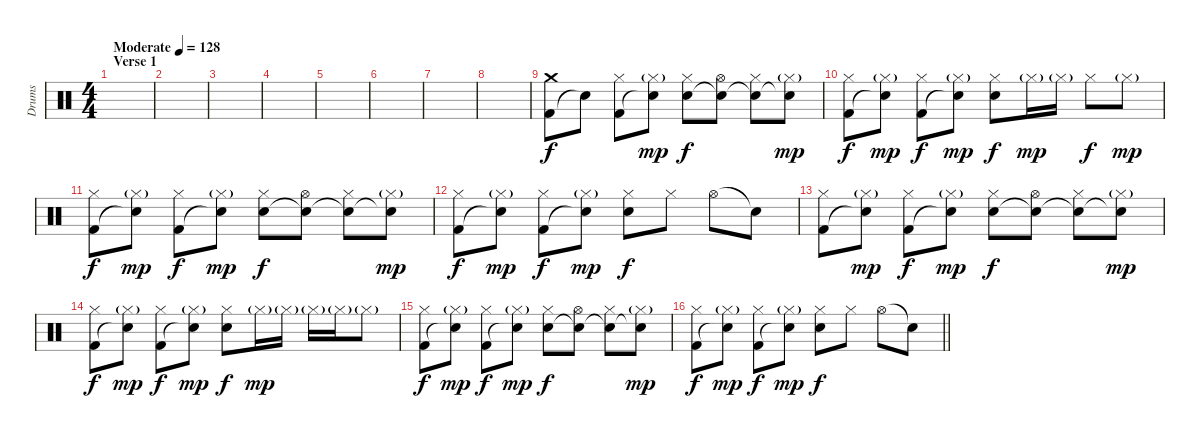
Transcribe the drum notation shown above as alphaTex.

\track ("Drums" "Drums") {instrument percussion}
\staff {score}
\articulation defaults
\ts (4 4)
\section ("" "Verse 1")
\tempo (128 "Moderate")
\clef neutral
\ks c
|
|
|
|
|
|
|
|
("Kick (hit) 2" "Crash medium (hit)").8 "Snare (hit)"{t}.8 ("Kick (hit) 2" "Hi-Hat (closed)").8 ("Snare (hit)"{t} "Hi-Hat (closed)"{g}).8{dy mp} ("Electric Snare (hit)" "Hi-Hat (closed)").8{dy f} ("Snare (hit)"{t} "Hi-Hat (open)").8 ("Snare (hit)"{t} "Hi-Hat (closed)").8 ("Snare (hit)"{t} "Hi-Hat (closed)"{g}).8{dy mp} |
("Kick (hit) 2" "Hi-Hat (closed)").8{dy f} ("Snare (hit)"{t} "Hi-Hat (closed)"{g}).8{dy mp} ("Kick (hit) 2" "Hi-Hat (closed)").8{dy f} ("Snare (hit)"{t} "Hi-Hat (closed)"{g}).8{dy mp} ("Electric Snare (hit)" "Hi-Hat (closed)").8{dy f} "Hi-Hat (closed)"{g}.16{dy mp} "Hi-Hat (closed)"{g}.16 "Hi-Hat (closed)".8{dy f} "Hi-Hat (closed)"{g}.8{dy mp} |
("Kick (hit) 2" "Hi-Hat (closed)").8{dy f} ("Snare (hit)"{t} "Hi-Hat (closed)"{g}).8{dy mp} ("Kick (hit) 2" "Hi-Hat (closed)").8{dy f} ("Snare (hit)"{t} "Hi-Hat (closed)"{g}).8{dy mp} ("Electric Snare (hit)" "Hi-Hat (closed)").8{dy f} ("Snare (hit)"{t} "Hi-Hat (open)").8 ("Snare (hit)"{t} "Hi-Hat (closed)").8 ("Snare (hit)"{t} "Hi-Hat (closed)"{g}).8{dy mp} |
("Kick (hit) 2" "Hi-Hat (closed)").8{dy f} ("Snare (hit)"{t} "Hi-Hat (closed)"{g}).8{dy mp} ("Kick (hit) 2" "Hi-Hat (closed)").8{dy f} ("Snare (hit)"{t} "Hi-Hat (closed)"{g}).8{dy mp} ("Electric Snare (hit)" "Hi-Hat (closed)").8{dy f} "Hi-Hat (closed)".8 "Hi-Hat (open)".8 "Snare (hit)"{t}.8 |
("Kick (hit) 2" "Hi-Hat (closed)").8 ("Snare (hit)"{t} "Hi-Hat (closed)"{g}).8{dy mp} ("Kick (hit) 2" "Hi-Hat (closed)").8{dy f} ("Snare (hit)"{t} "Hi-Hat (closed)"{g}).8{dy mp} ("Electric Snare (hit)" "Hi-Hat (closed)").8{dy f} ("Snare (hit)"{t} "Hi-Hat (open)").8 ("Snare (hit)"{t} "Hi-Hat (closed)").8 ("Snare (hit)"{t} "Hi-Hat (closed)"{g}).8{dy mp} |
("Kick (hit) 2" "Hi-Hat (closed)").8{dy f} ("Snare (hit)"{t} "Hi-Hat (closed)"{g}).8{dy mp} ("Kick (hit) 2" "Hi-Hat (closed)").8{dy f} ("Snare (hit)"{t} "Hi-Hat (closed)"{g}).8{dy mp} ("Electric Snare (hit)" "Hi-Hat (closed)").8{dy f} "Hi-Hat (closed)"{g}.16{dy mp} "Hi-Hat (closed)"{g}.16 "Hi-Hat (closed)"{g}.16 "Hi-Hat (closed)"{g}.16 "Hi-Hat (closed)"{g}.8 |
("Kick (hit) 2" "Hi-Hat (closed)").8{dy f} ("Snare (hit)"{t} "Hi-Hat (closed)"{g}).8{dy mp} ("Kick (hit) 2" "Hi-Hat (closed)").8{dy f} ("Snare (hit)"{t} "Hi-Hat (closed)"{g}).8{dy mp} ("Electric Snare (hit)" "Hi-Hat (closed)").8{dy f} ("Snare (hit)"{t} "Hi-Hat (open)").8 ("Snare (hit)"{t} "Hi-Hat (closed)").8 ("Snare (hit)"{t} "Hi-Hat (closed)"{g}).8{dy mp} |
\barLineRight lightlight
("Kick (hit) 2" "Hi-Hat (closed)").8{dy f} ("Snare (hit)"{t} "Hi-Hat (closed)"{g}).8{dy mp} ("Kick (hit) 2" "Hi-Hat (closed)").8{dy f} ("Snare (hit)"{t} "Hi-Hat (closed)"{g}).8{dy mp} ("Electric Snare (hit)" "Hi-Hat (closed)").8{dy f} "Hi-Hat (closed)".8 "Hi-Hat (open)".8 "Snare (hit)"{t}.8
